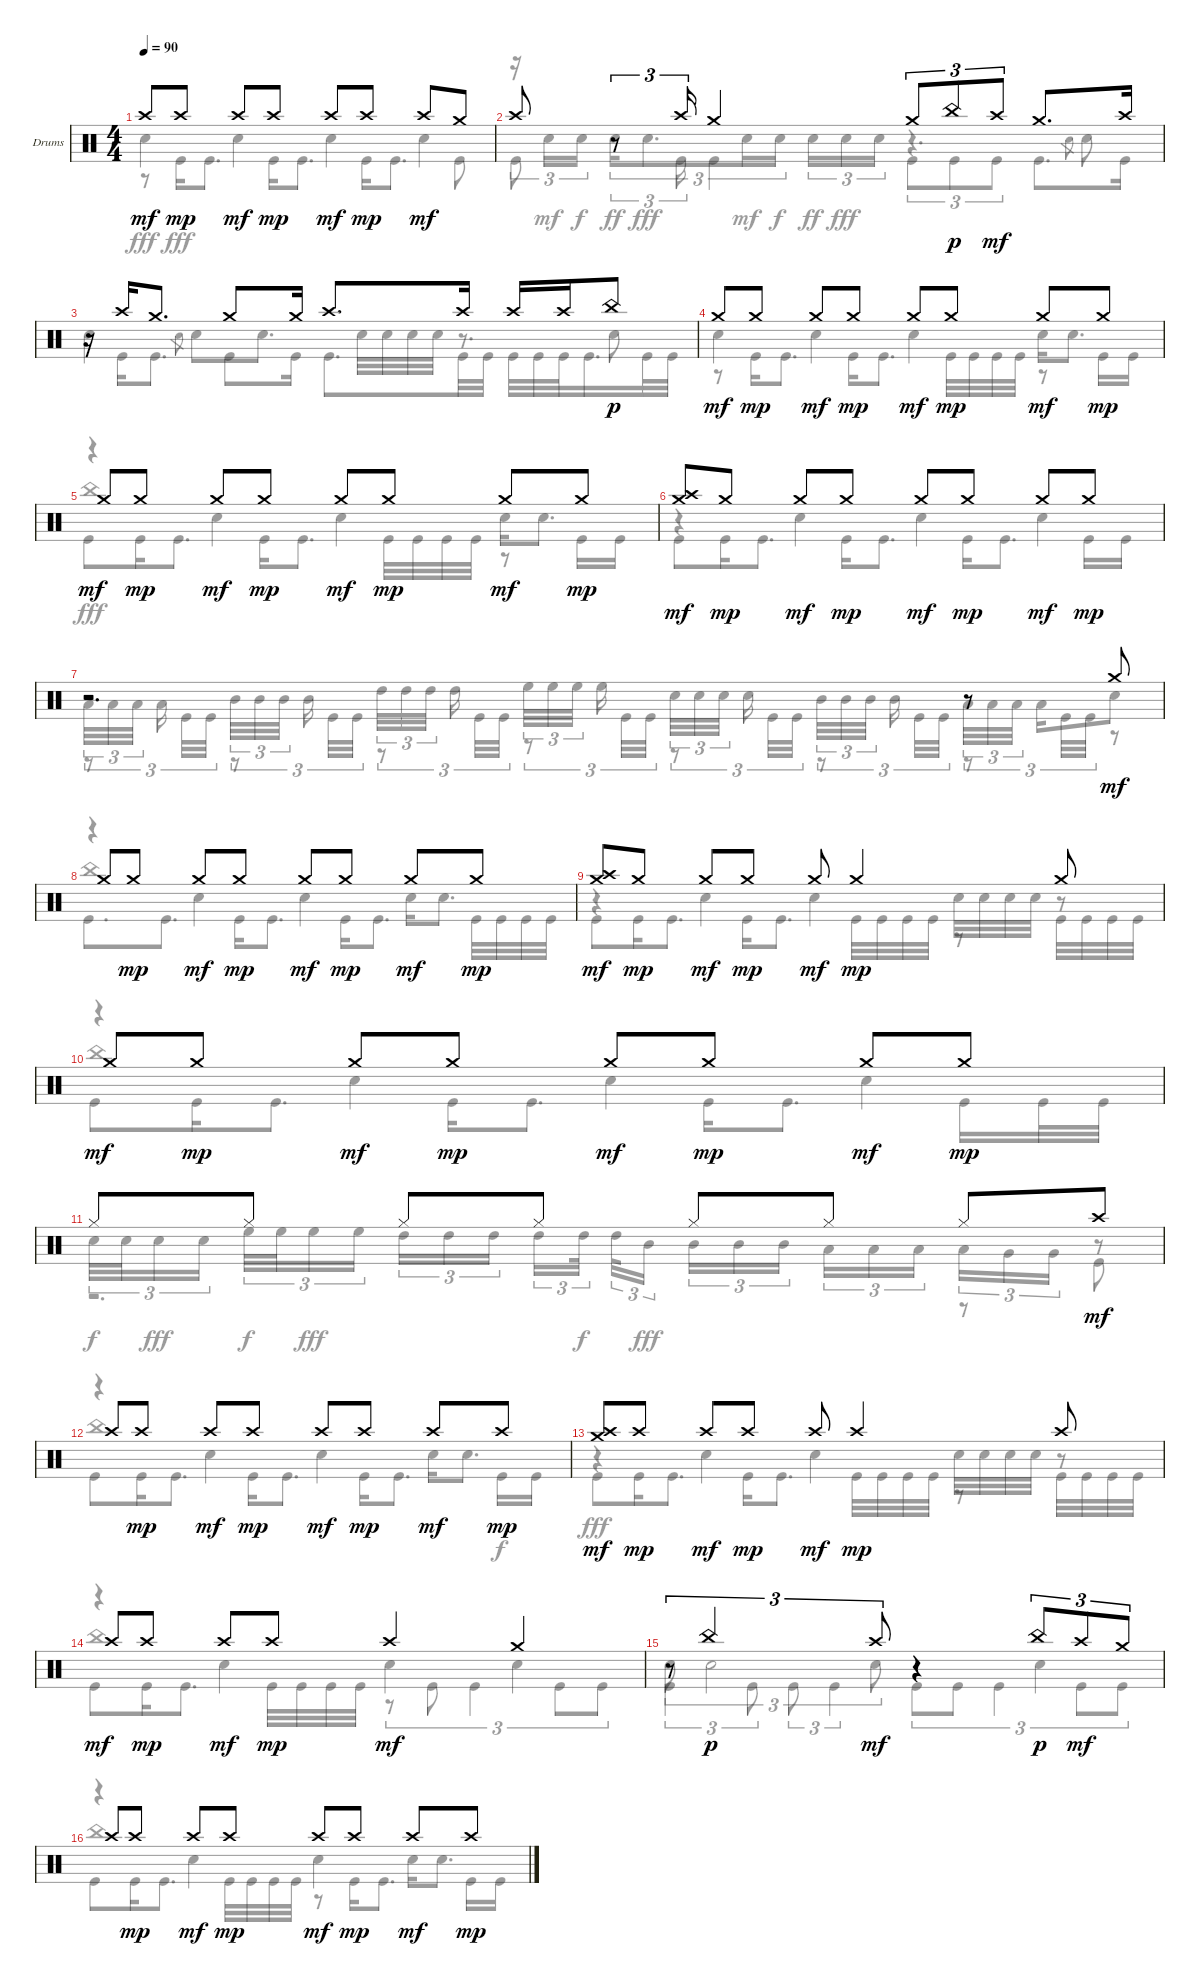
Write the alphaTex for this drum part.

\defaultSystemsLayout 4
\bracketExtendMode groupsimilarinstruments
\firstSystemTrackNameOrientation horizontal
\otherSystemsTrackNameOrientation horizontal
\track ("Drumkit" "Drums") {instrument percussion}
\staff {score}
\articulation defaults
\voice
\ts (4 4)
\tempo 90
\clef neutral
\ks c "Crash high (hit)".8{dy mf} "Crash high (hit)".8{dy mp} "Crash high (hit)".8{dy mf} "Crash high (hit)".8{dy mp} "Crash high (hit)".8{dy mf} "Crash high (hit)".8{dy mp} "Crash high (hit)".8{dy mf} "Crash medium (hit)".8
|
"Crash high (hit)".8 r.8{tu (3 2)} "Crash high (hit)".16{tu (3 2)} "Crash medium (hit)".4 "Crash medium (hit)".8{tu (3 2)} "China (hit)".8{tu (3 2) dy p} "Crash high (hit)".8{tu (3 2) dy mf} "Crash medium (hit)".8{d} "Crash high (hit)".16 |
r.16 "Crash high (hit)".16 "Crash medium (hit)".8{d} "Crash medium (hit)".8 "Crash medium (hit)".16 "Crash high (hit)".8{d} "Crash high (hit)".16 "Crash high (hit)".16 "Crash high (hit)".16 "China (hit)".8{dy p} |
"Crash medium (hit)".8{dy mf} "Crash medium (hit)".8{dy mp} "Crash medium (hit)".8{dy mf} "Crash medium (hit)".8{dy mp} "Crash medium (hit)".8{dy mf} "Crash medium (hit)".8{dy mp} "Crash medium (hit)".8{dy mf} "Crash medium (hit)".8{dy mp} |
"Crash medium (hit)".8{dy mf} "Crash medium (hit)".8{dy mp} "Crash medium (hit)".8{dy mf} "Crash medium (hit)".8{dy mp} "Crash medium (hit)".8{dy mf} "Crash medium (hit)".8{dy mp} "Crash medium (hit)".8{dy mf} "Crash medium (hit)".8{dy mp} |
("Crash medium (hit)" "Crash high (hit)").8{dy mf} "Crash medium (hit)".8{dy mp} "Crash medium (hit)".8{dy mf} "Crash medium (hit)".8{dy mp} "Crash medium (hit)".8{dy mf} "Crash medium (hit)".8{dy mp} "Crash medium (hit)".8{dy mf} "Crash medium (hit)".8{dy mp} |
r.2{d} r.8 "Crash medium (hit)".8{dy mf} |
"Crash medium (hit)".8 "Crash medium (hit)".8{dy mp} "Crash medium (hit)".8{dy mf} "Crash medium (hit)".8{dy mp} "Crash medium (hit)".8{dy mf} "Crash medium (hit)".8{dy mp} "Crash medium (hit)".8{dy mf} "Crash medium (hit)".8{dy mp} |
("Crash medium (hit)" "Crash high (hit)").8{dy mf} "Crash medium (hit)".8{dy mp} "Crash medium (hit)".8{dy mf} "Crash medium (hit)".8{dy mp} "Crash medium (hit)".8{dy mf} "Crash medium (hit)".4{dy mp} "Crash medium (hit)".8 |
"Crash medium (hit)".8{dy mf} "Crash medium (hit)".8{dy mp} "Crash medium (hit)".8{dy mf} "Crash medium (hit)".8{dy mp} "Crash medium (hit)".8{dy mf} "Crash medium (hit)".8{dy mp} "Crash medium (hit)".8{dy mf} "Crash medium (hit)".8{dy mp} |
"Hi-Hat (closed)".8 "Hi-Hat (closed)".8 "Hi-Hat (closed)".8 "Hi-Hat (closed)".8 "Hi-Hat (closed)".8 "Hi-Hat (closed)".8 "Hi-Hat (closed)".8 "Crash high (hit)".8{dy mf} |
"Crash high (hit)".8 "Crash high (hit)".8{dy mp} "Crash high (hit)".8{dy mf} "Crash high (hit)".8{dy mp} "Crash high (hit)".8{dy mf} "Crash high (hit)".8{dy mp} "Crash high (hit)".8{dy mf} "Crash high (hit)".8{dy mp} |
("Crash high (hit)" "Crash medium (hit)").8{dy mf} "Crash high (hit)".8{dy mp} "Crash high (hit)".8{dy mf} "Crash high (hit)".8{dy mp} "Crash high (hit)".8{dy mf} "Crash high (hit)".4{dy mp} "Crash high (hit)".8 |
"Crash high (hit)".8{dy mf} "Crash high (hit)".8{dy mp} "Crash high (hit)".8{dy mf} "Crash high (hit)".8{dy mp} "Crash high (hit)".4{dy mf} "Crash medium (hit)".4 |
r.8{tu (3 2)} "China (hit)".2{tu (3 2) dy p} "Crash high (hit)".8{tu (3 2) dy mf} r.4 "China (hit)".8{tu (3 2) dy p} "Crash high (hit)".8{tu (3 2) dy mf} "Crash medium (hit)".8{tu (3 2)} |
"Crash high (hit)".8 "Crash high (hit)".8{dy mp} "Crash high (hit)".8{dy mf} "Crash high (hit)".8{dy mp} "Crash high (hit)".8{dy mf} "Crash high (hit)".8{dy mp} "Crash high (hit)".8{dy mf} "Crash high (hit)".8{dy mp}
\voice
\clef neutral
\ottava regular
\simile none
\ks c "Snare (hit) 2".4{dy fff} "Snare (hit) 2".4 "Snare (hit) 2".4 "Snare (hit) 2".4
|
r.16{tu (3 2)} "Snare (hit) 2".16{tu (3 2) dy mf} "Snare (hit) 2".16{tu (3 2) dy f} "Snare (hit) 2".16{tu (3 2) dy ff} "Snare (hit) 2".8{d tu (3 2) dy fff} "Snare (hit) 2".16{tu (3 2) dy mf} "Snare (hit) 2".16{tu (3 2) dy f} "Snare (hit) 2".16{tu (3 2) dy ff} "Snare (hit) 2".16{tu (3 2) dy fff} "Snare (hit) 2".16{tu (3 2)} r.4{d} "Snare (hit) 2".8{gr} "Snare (hit) 2".8 |
"Snare (hit) 2".4 "Snare (hit) 2".8{gr} "Snare (hit) 2".8 "Snare (hit) 2".8{d} "Snare (hit) 2".32 "Snare (hit) 2".32 "Snare (hit) 2".32 "Snare (hit) 2".32 r.8{d} "Snare (hit) 2".8 |
"Snare (hit) 2".4 "Snare (hit) 2".4 "Snare (hit) 2".4 "Snare (hit) 2".16 "Snare (hit) 2".8{d} |
r.4 "Snare (hit) 2".4 "Snare (hit) 2".4 "Snare (hit) 2".16 "Snare (hit) 2".8{d} |
r.4 "Snare (hit) 2".4 "Snare (hit) 2".4 "Snare (hit) 2".4 |
"Low Tom (hit)".32{tu (3 2)} "Low Tom (hit)".32{tu (3 2)} "Low Tom (hit)".32{tu (3 2)} "Low Tom (hit)".16 "Mid Tom (hit)".32{tu (3 2)} "Mid Tom (hit)".32{tu (3 2)} "Mid Tom (hit)".32{tu (3 2)} "Mid Tom (hit)".16 "High Tom (hit)".32{tu (3 2)} "High Tom (hit)".32{tu (3 2)} "High Tom (hit)".32{tu (3 2)} "High Tom (hit)".16 "High Floor Tom (hit)".32{tu (3 2)} "High Floor Tom (hit)".32{tu (3 2)} "High Floor Tom (hit)".32{tu (3 2)} "High Floor Tom (hit)".16 "Snare (hit) 2".32{tu (3 2)} "Snare (hit) 2".32{tu (3 2)} "Snare (hit) 2".32{tu (3 2)} "Snare (hit) 2".16 "Mid Tom (hit)".32{tu (3 2)} "Mid Tom (hit)".32{tu (3 2)} "Mid Tom (hit)".32{tu (3 2)} "Mid Tom (hit)".16 "Low Tom (hit)".32{tu (3 2)} "Low Tom (hit)".32{tu (3 2)} "Low Tom (hit)".32{tu (3 2)} "Low Tom (hit)".16 "Snare (hit) 2".8 |
r.4 "Snare (hit) 2".4 "Snare (hit) 2".4 "Snare (hit) 2".16 "Snare (hit) 2".8{d} |
r.4 "Snare (hit) 2".4 "Snare (hit) 2".4 "Snare (hit) 2".32 "Snare (hit) 2".32 "Snare (hit) 2".32 "Snare (hit) 2".32 r.8 |
r.4 "Snare (hit) 2".4 "Snare (hit) 2".4 "Snare (hit) 2".4 |
"Snare (hit) 2".32{tu (3 2) dy f} "Snare (hit) 2".32{tu (3 2)} "Snare (hit) 2".16{tu (3 2) dy fff} "Snare (hit) 2".16{tu (3 2)} "High Floor Tom (hit)".32{tu (3 2) dy f} "High Floor Tom (hit)".32{tu (3 2)} "High Floor Tom (hit)".16{tu (3 2) dy fff} "High Floor Tom (hit)".16{tu (3 2)} "High Tom (hit)".16{tu (3 2)} "High Tom (hit)".16{tu (3 2)} "High Tom (hit)".16{tu (3 2)} "High Tom (hit)".16{tu (3 2)} "High Tom (hit)".32{tu (3 2) dy f} "High Tom (hit)".32{tu (3 2)} "Mid Tom (hit)".16{tu (3 2) dy fff} "Mid Tom (hit)".16{tu (3 2)} "Mid Tom (hit)".16{tu (3 2)} "Mid Tom (hit)".16{tu (3 2)} "Low Tom (hit)".16{tu (3 2)} "Low Tom (hit)".16{tu (3 2)} "Low Tom (hit)".16{tu (3 2)} "Low Tom (hit)".16{tu (3 2)} "Very Low Tom (hit)".16{tu (3 2)} "Very Low Tom (hit)".16{tu (3 2)} r.8 |
r.4 "Snare (hit) 2".4 "Snare (hit) 2".4 "Snare (hit) 2".16 "Snare (hit) 2".8{d} |
r.4 "Snare (hit) 2".4 "Snare (hit) 2".4 "Snare (hit) 2".32 "Snare (hit) 2".32 "Snare (hit) 2".32 "Snare (hit) 2".32 r.8 |
r.4 "Snare (hit) 2".4 "Snare (hit) 2".4 "Snare (hit) 2".4 |
"Snare (hit) 2".8{tu (3 2)} "Snare (hit) 2".2{tu (3 2)} "Snare (hit) 2".8{tu (3 2)} r.4 "Snare (hit) 2".4 |
r.4 "Snare (hit) 2".4 "Snare (hit) 2".4 "Snare (hit) 2".16 "Snare (hit) 2".8{d}
\voice
\clef neutral
\ottava regular
\simile none
\ks c
r.8{dy fff} "Kick (hit)".16 "Kick (hit)".8{d} "Kick (hit)".16 "Kick (hit)".8{d} "Kick (hit)".16 "Kick (hit)".8{d} "Kick (hit)".8 |
"Kick (hit)".8 r.8{tu (3 2)} "Kick (hit)".16{tu (3 2)} "Kick (hit)".4 "Kick (hit)".8{tu (3 2)} "Kick (hit)".8{tu (3 2)} "Kick (hit)".8{tu (3 2)} "Kick (hit)".8{d} "Kick (hit)".16 |
r.16 "Kick (hit)".16 "Kick (hit)".8{d} "Kick (hit)".8 "Kick (hit)".16 "Kick (hit)".8{d} "Kick (hit)".32 "Kick (hit)".32 "Kick (hit)".32 "Kick (hit)".32 "Kick (hit)".32 "Kick (hit)".16{d} "Kick (hit)".32 "Kick (hit)".32 |
r.8 "Kick (hit)".16 "Kick (hit)".8{d} "Kick (hit)".16 "Kick (hit)".8{d} "Kick (hit)".32 "Kick (hit)".32 "Kick (hit)".32 "Kick (hit)".32 r.8 "Kick (hit)".16 "Kick (hit)".16 |
"Kick (hit)".8 "Kick (hit)".16 "Kick (hit)".8{d} "Kick (hit)".16 "Kick (hit)".8{d} "Kick (hit)".32 "Kick (hit)".32 "Kick (hit)".32 "Kick (hit)".32 r.8 "Kick (hit)".16 "Kick (hit)".16 |
"Kick (hit)".8 "Kick (hit)".16 "Kick (hit)".8{d} "Kick (hit)".16 "Kick (hit)".8{d} "Kick (hit)".16 "Kick (hit)".8{d} "Kick (hit)".16 "Kick (hit)".16 |
r.8{tu (3 2)} "Kick (hit)".32{tu (3 2)} "Kick (hit)".32{tu (3 2)} r.8{tu (3 2)} "Kick (hit)".32{tu (3 2)} "Kick (hit)".32{tu (3 2)} r.8{tu (3 2)} "Kick (hit)".32{tu (3 2)} "Kick (hit)".32{tu (3 2)} r.8{tu (3 2)} "Kick (hit)".32{tu (3 2)} "Kick (hit)".32{tu (3 2)} r.8{tu (3 2)} "Kick (hit)".32{tu (3 2)} "Kick (hit)".32{tu (3 2)} r.8{tu (3 2)} "Kick (hit)".32{tu (3 2)} "Kick (hit)".32{tu (3 2)} r.8{tu (3 2)} "Kick (hit)".32{tu (3 2)} "Kick (hit)".32{tu (3 2)} r.8 |
"Kick (hit)".8{d} "Kick (hit)".8{d} "Kick (hit)".16 "Kick (hit)".8{d} "Kick (hit)".16 "Kick (hit)".8{d} "Kick (hit)".32 "Kick (hit)".32 "Kick (hit)".32 "Kick (hit)".32 |
"Kick (hit)".8 "Kick (hit)".16 "Kick (hit)".8{d} "Kick (hit)".16 "Kick (hit)".8{d} "Kick (hit)".32 "Kick (hit)".32 "Kick (hit)".32 "Kick (hit)".32 r.8 "Kick (hit)".32 "Kick (hit)".32 "Kick (hit)".32 "Kick (hit)".32 |
"Kick (hit)".8 "Kick (hit)".16 "Kick (hit)".8{d} "Kick (hit)".16 "Kick (hit)".8{d} "Kick (hit)".16 "Kick (hit)".8{d} "Kick (hit)".16 "Kick (hit)".32 "Kick (hit)".32 |
r.2{d} r.8 "Kick (hit)".8 |
"Kick (hit)".8 "Kick (hit)".16 "Kick (hit)".8{d} "Kick (hit)".16 "Kick (hit)".8{d} "Kick (hit)".16 "Kick (hit)".8{d} "Kick (hit)".16{dy f} "Kick (hit)".16 |
"Kick (hit)".8{dy fff} "Kick (hit)".16 "Kick (hit)".8{d} "Kick (hit)".16 "Kick (hit)".8{d} "Kick (hit)".32 "Kick (hit)".32 "Kick (hit)".32 "Kick (hit)".32 r.8 "Kick (hit)".32 "Kick (hit)".32 "Kick (hit)".32 "Kick (hit)".32 |
"Kick (hit)".8 "Kick (hit)".16 "Kick (hit)".8{d} "Kick (hit)".32 "Kick (hit)".32 "Kick (hit)".32 "Kick (hit)".32 r.8{tu (3 2)} "Kick (hit)".8{tu (3 2)} "Kick (hit)".4{tu (3 2)} "Kick (hit)".8{tu (3 2)} "Kick (hit)".8{tu (3 2)} |
"Kick (hit)".4{tu (3 2)} "Kick (hit)".8{tu (3 2)} "Kick (hit)".8{tu (3 2)} "Kick (hit)".4{tu (3 2)} "Kick (hit)".8{tu (3 2)} "Kick (hit)".8{tu (3 2)} "Kick (hit)".4{tu (3 2)} "Kick (hit)".8{tu (3 2)} "Kick (hit)".8{tu (3 2)} |
"Kick (hit)".8 "Kick (hit)".16 "Kick (hit)".8{d} "Kick (hit)".32 "Kick (hit)".32 "Kick (hit)".32 "Kick (hit)".32 r.8 "Kick (hit)".16 "Kick (hit)".8{d} "Kick (hit)".16 "Kick (hit)".16
\voice
\clef neutral
\ottava regular
\simile none
\ks c
|
|
|
|
"China (hit)".1 |
|
|
"China (hit)".1 |
|
"China (hit)".1 |
|
"China (hit)".1 |
|
"China (hit)".1 |
|
"China (hit)".1
